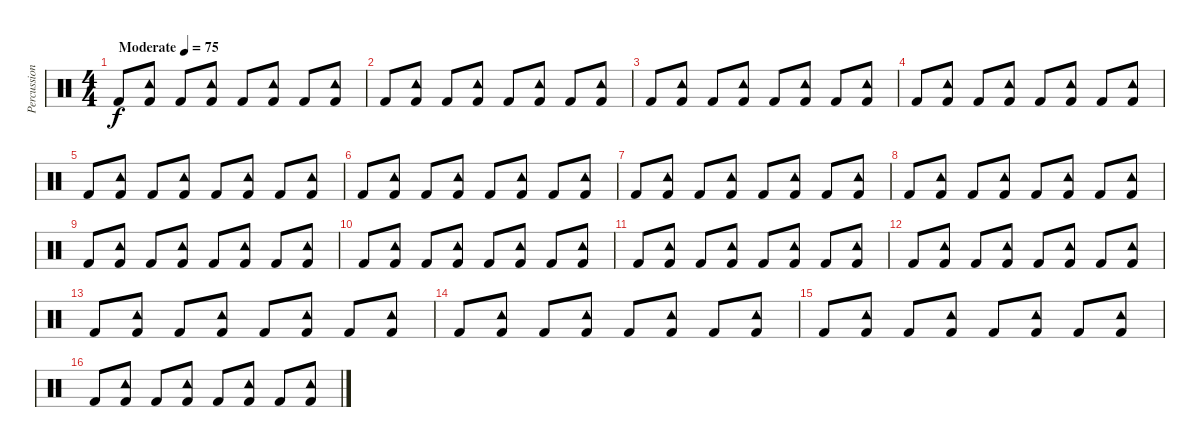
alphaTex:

\track ("Percussion" "Percussion") {instrument percussion}
\staff {score}
\articulation defaults
\ts (4 4)
\tempo (75 "Moderate")
\clef neutral
\ks c "Kick (hit) 2".8{dy f}
("Tambourine (hit)" "Kick (hit) 2").8 "Kick (hit) 2".8 ("Tambourine (hit)" "Kick (hit) 2").8 "Kick (hit) 2".8 ("Tambourine (hit)" "Kick (hit) 2").8 "Kick (hit) 2".8 ("Tambourine (hit)" "Kick (hit) 2").8 |
"Kick (hit) 2".8 ("Tambourine (hit)" "Kick (hit) 2").8 "Kick (hit) 2".8 ("Tambourine (hit)" "Kick (hit) 2").8 "Kick (hit) 2".8 ("Tambourine (hit)" "Kick (hit) 2").8 "Kick (hit) 2".8 ("Tambourine (hit)" "Kick (hit) 2").8 |
"Kick (hit) 2".8 ("Tambourine (hit)" "Kick (hit) 2").8 "Kick (hit) 2".8 ("Tambourine (hit)" "Kick (hit) 2").8 "Kick (hit) 2".8 ("Tambourine (hit)" "Kick (hit) 2").8 "Kick (hit) 2".8 ("Tambourine (hit)" "Kick (hit) 2").8 |
"Kick (hit) 2".8 ("Tambourine (hit)" "Kick (hit) 2").8 "Kick (hit) 2".8 ("Tambourine (hit)" "Kick (hit) 2").8 "Kick (hit) 2".8 ("Tambourine (hit)" "Kick (hit) 2").8 "Kick (hit) 2".8 ("Tambourine (hit)" "Kick (hit) 2").8 |
"Kick (hit) 2".8 ("Tambourine (hit)" "Kick (hit) 2").8 "Kick (hit) 2".8 ("Tambourine (hit)" "Kick (hit) 2").8 "Kick (hit) 2".8 ("Tambourine (hit)" "Kick (hit) 2").8 "Kick (hit) 2".8 ("Tambourine (hit)" "Kick (hit) 2").8 |
"Kick (hit) 2".8 ("Tambourine (hit)" "Kick (hit) 2").8 "Kick (hit) 2".8 ("Tambourine (hit)" "Kick (hit) 2").8 "Kick (hit) 2".8 ("Tambourine (hit)" "Kick (hit) 2").8 "Kick (hit) 2".8 ("Tambourine (hit)" "Kick (hit) 2").8 |
"Kick (hit) 2".8 ("Tambourine (hit)" "Kick (hit) 2").8 "Kick (hit) 2".8 ("Tambourine (hit)" "Kick (hit) 2").8 "Kick (hit) 2".8 ("Tambourine (hit)" "Kick (hit) 2").8 "Kick (hit) 2".8 ("Tambourine (hit)" "Kick (hit) 2").8 |
"Kick (hit) 2".8 ("Tambourine (hit)" "Kick (hit) 2").8 "Kick (hit) 2".8 ("Tambourine (hit)" "Kick (hit) 2").8 "Kick (hit) 2".8 ("Tambourine (hit)" "Kick (hit) 2").8 "Kick (hit) 2".8 ("Tambourine (hit)" "Kick (hit) 2").8 |
"Kick (hit) 2".8 ("Tambourine (hit)" "Kick (hit) 2").8 "Kick (hit) 2".8 ("Tambourine (hit)" "Kick (hit) 2").8 "Kick (hit) 2".8 ("Tambourine (hit)" "Kick (hit) 2").8 "Kick (hit) 2".8 ("Tambourine (hit)" "Kick (hit) 2").8 |
"Kick (hit) 2".8 ("Tambourine (hit)" "Kick (hit) 2").8 "Kick (hit) 2".8 ("Tambourine (hit)" "Kick (hit) 2").8 "Kick (hit) 2".8 ("Tambourine (hit)" "Kick (hit) 2").8 "Kick (hit) 2".8 ("Tambourine (hit)" "Kick (hit) 2").8 |
"Kick (hit) 2".8 ("Tambourine (hit)" "Kick (hit) 2").8 "Kick (hit) 2".8 ("Tambourine (hit)" "Kick (hit) 2").8 "Kick (hit) 2".8 ("Tambourine (hit)" "Kick (hit) 2").8 "Kick (hit) 2".8 ("Tambourine (hit)" "Kick (hit) 2").8 |
"Kick (hit) 2".8 ("Tambourine (hit)" "Kick (hit) 2").8 "Kick (hit) 2".8 ("Tambourine (hit)" "Kick (hit) 2").8 "Kick (hit) 2".8 ("Tambourine (hit)" "Kick (hit) 2").8 "Kick (hit) 2".8 ("Tambourine (hit)" "Kick (hit) 2").8 |
"Kick (hit) 2".8 ("Tambourine (hit)" "Kick (hit) 2").8 "Kick (hit) 2".8 ("Tambourine (hit)" "Kick (hit) 2").8 "Kick (hit) 2".8 ("Tambourine (hit)" "Kick (hit) 2").8 "Kick (hit) 2".8 ("Tambourine (hit)" "Kick (hit) 2").8 |
"Kick (hit) 2".8 ("Tambourine (hit)" "Kick (hit) 2").8 "Kick (hit) 2".8 ("Tambourine (hit)" "Kick (hit) 2").8 "Kick (hit) 2".8 ("Tambourine (hit)" "Kick (hit) 2").8 "Kick (hit) 2".8 ("Tambourine (hit)" "Kick (hit) 2").8 |
"Kick (hit) 2".8 ("Tambourine (hit)" "Kick (hit) 2").8 "Kick (hit) 2".8 ("Tambourine (hit)" "Kick (hit) 2").8 "Kick (hit) 2".8 ("Tambourine (hit)" "Kick (hit) 2").8 "Kick (hit) 2".8 ("Tambourine (hit)" "Kick (hit) 2").8 |
"Kick (hit) 2".8 ("Tambourine (hit)" "Kick (hit) 2").8 "Kick (hit) 2".8 ("Tambourine (hit)" "Kick (hit) 2").8 "Kick (hit) 2".8 ("Tambourine (hit)" "Kick (hit) 2").8 "Kick (hit) 2".8 ("Tambourine (hit)" "Kick (hit) 2").8
